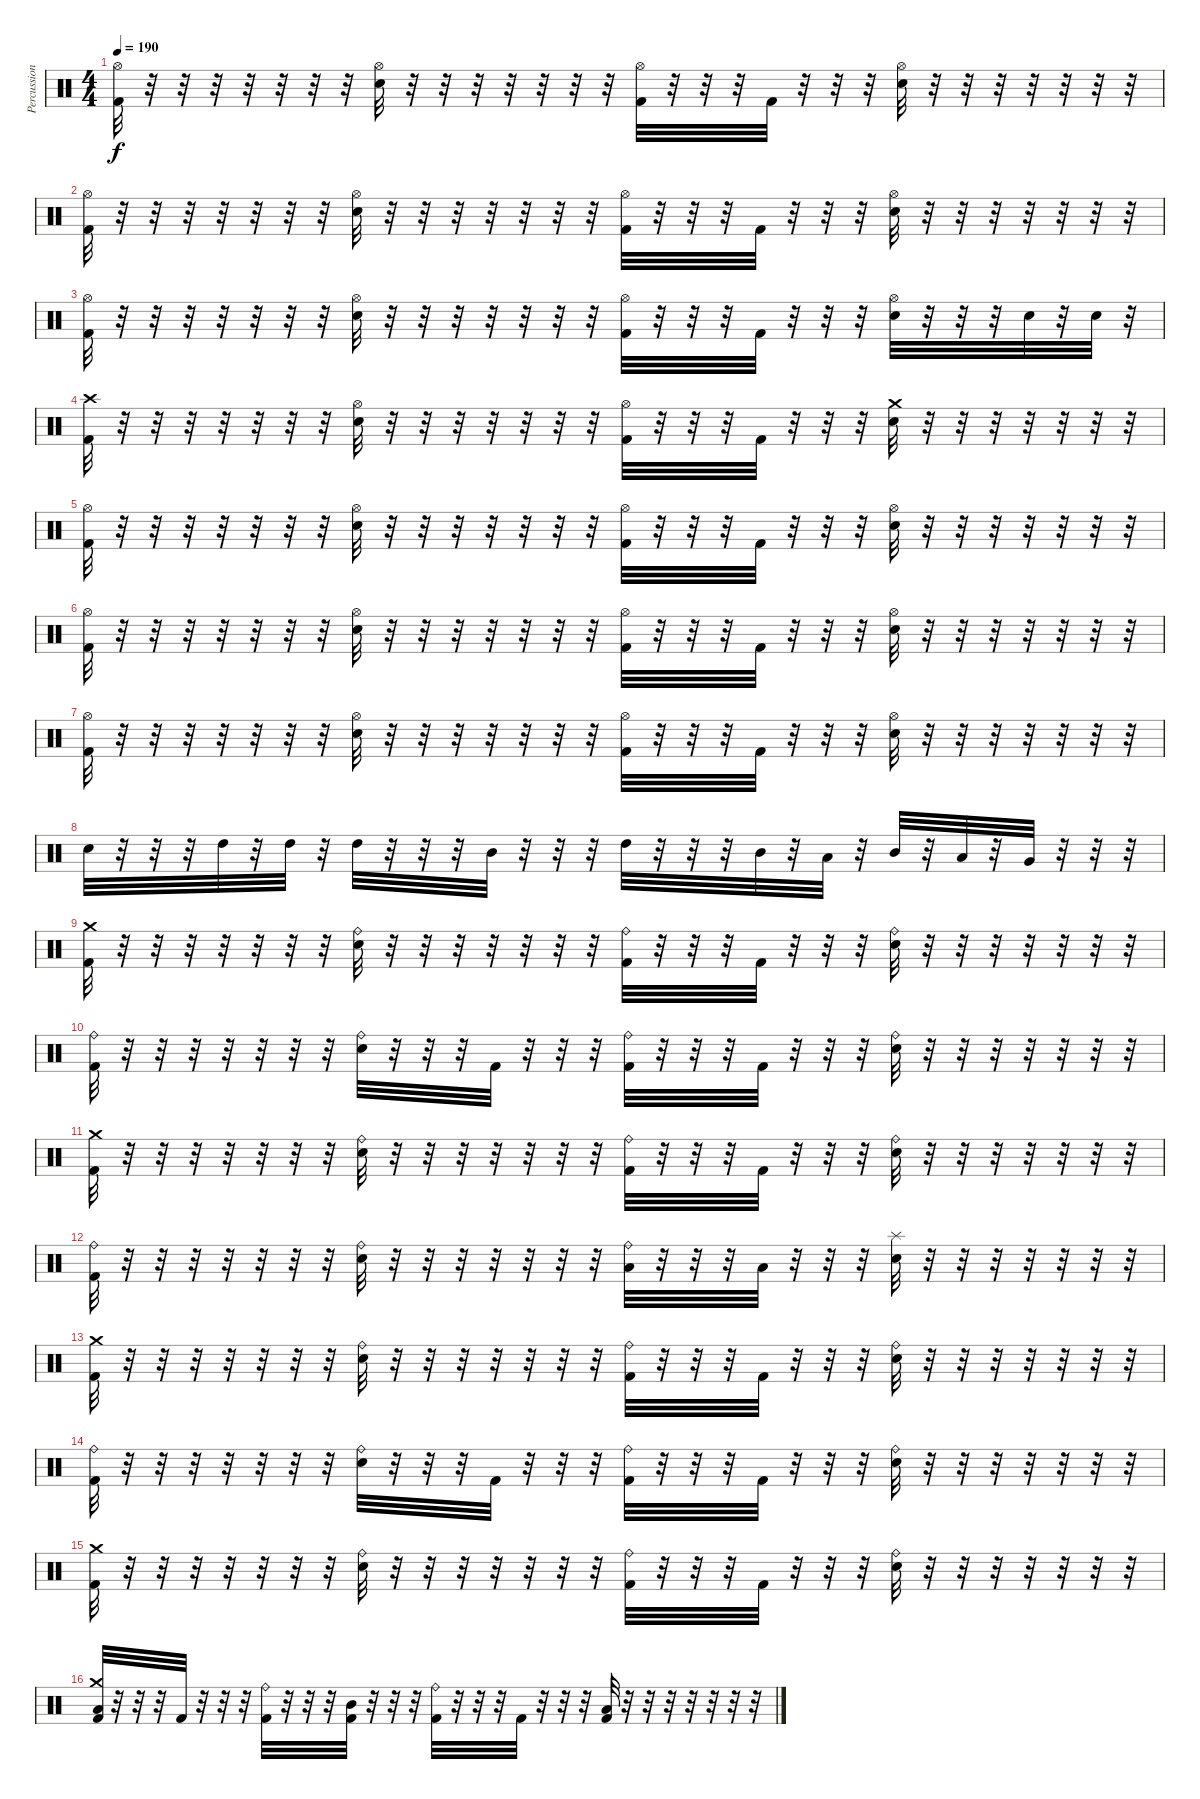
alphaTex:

\track ("Percussion" "Percussion") {instrument percussion}
\staff {score}
\articulation defaults
\ts (4 4)
\tempo 190
\clef neutral
\ks c
("Hi-Hat (open)" "Kick (hit) 2").32{dy f} r.32 r.32 r.32 r.32 r.32 r.32 r.32 ("Hi-Hat (open)" "Electric Snare (hit)").32 r.32 r.32 r.32 r.32 r.32 r.32 r.32 ("Hi-Hat (open)" "Kick (hit) 2").32 r.32 r.32 r.32 "Kick (hit) 2".32 r.32 r.32 r.32 ("Hi-Hat (open)" "Electric Snare (hit)").32 r.32 r.32 r.32 r.32 r.32 r.32 r.32 |
("Hi-Hat (open)" "Kick (hit) 2").32 r.32 r.32 r.32 r.32 r.32 r.32 r.32 ("Hi-Hat (open)" "Electric Snare (hit)").32 r.32 r.32 r.32 r.32 r.32 r.32 r.32 ("Hi-Hat (open)" "Kick (hit) 2").32 r.32 r.32 r.32 "Kick (hit) 2".32 r.32 r.32 r.32 ("Hi-Hat (open)" "Electric Snare (hit)").32 r.32 r.32 r.32 r.32 r.32 r.32 r.32 |
("Hi-Hat (open)" "Kick (hit) 2").32 r.32 r.32 r.32 r.32 r.32 r.32 r.32 ("Hi-Hat (open)" "Electric Snare (hit)").32 r.32 r.32 r.32 r.32 r.32 r.32 r.32 ("Hi-Hat (open)" "Kick (hit) 2").32 r.32 r.32 r.32 "Kick (hit) 2".32 r.32 r.32 r.32 ("Hi-Hat (open)" "Electric Snare (hit)").32 r.32 r.32 r.32 "Electric Snare (hit)".32 r.32 "Electric Snare (hit)".32 r.32 |
("Crash high (hit)" "Kick (hit) 2").32 r.32 r.32 r.32 r.32 r.32 r.32 r.32 ("Hi-Hat (open)" "Electric Snare (hit)").32 r.32 r.32 r.32 r.32 r.32 r.32 r.32 ("Hi-Hat (open)" "Kick (hit) 2").32 r.32 r.32 r.32 "Kick (hit) 2".32 r.32 r.32 r.32 ("Crash medium (hit)" "Electric Snare (hit)").32 r.32 r.32 r.32 r.32 r.32 r.32 r.32 |
("Hi-Hat (open)" "Kick (hit) 2").32 r.32 r.32 r.32 r.32 r.32 r.32 r.32 ("Hi-Hat (open)" "Electric Snare (hit)").32 r.32 r.32 r.32 r.32 r.32 r.32 r.32 ("Hi-Hat (open)" "Kick (hit) 2").32 r.32 r.32 r.32 "Kick (hit) 2".32 r.32 r.32 r.32 ("Hi-Hat (open)" "Electric Snare (hit)").32 r.32 r.32 r.32 r.32 r.32 r.32 r.32 |
("Hi-Hat (open)" "Kick (hit) 2").32 r.32 r.32 r.32 r.32 r.32 r.32 r.32 ("Hi-Hat (open)" "Electric Snare (hit)").32 r.32 r.32 r.32 r.32 r.32 r.32 r.32 ("Hi-Hat (open)" "Kick (hit) 2").32 r.32 r.32 r.32 "Kick (hit) 2".32 r.32 r.32 r.32 ("Hi-Hat (open)" "Electric Snare (hit)").32 r.32 r.32 r.32 r.32 r.32 r.32 r.32 |
("Hi-Hat (open)" "Kick (hit) 2").32 r.32 r.32 r.32 r.32 r.32 r.32 r.32 ("Hi-Hat (open)" "Electric Snare (hit)").32 r.32 r.32 r.32 r.32 r.32 r.32 r.32 ("Hi-Hat (open)" "Kick (hit) 2").32 r.32 r.32 r.32 "Kick (hit) 2".32 r.32 r.32 r.32 ("Hi-Hat (open)" "Electric Snare (hit)").32 r.32 r.32 r.32 r.32 r.32 r.32 r.32 |
"Electric Snare (hit)".32 r.32 r.32 r.32 "High Tom (hit)".32 r.32 "High Tom (hit)".32 r.32 "High Tom (hit)".32 r.32 r.32 r.32 "Mid Tom (hit)".32 r.32 r.32 r.32 "High Tom (hit)".32 r.32 r.32 r.32 "Mid Tom (hit)".32 r.32 "Low Tom (hit)".32 r.32 "Mid Tom (hit)".32 r.32 "Low Tom (hit)".32 r.32 "Very Low Tom (hit)".32 r.32 r.32 r.32 |
("Crash medium (hit)" "Kick (hit) 2").32 r.32 r.32 r.32 r.32 r.32 r.32 r.32 ("Ride (bell)" "Electric Snare (hit)").32 r.32 r.32 r.32 r.32 r.32 r.32 r.32 ("Ride (bell)" "Kick (hit) 2").32 r.32 r.32 r.32 "Kick (hit) 2".32 r.32 r.32 r.32 ("Ride (bell)" "Electric Snare (hit)").32 r.32 r.32 r.32 r.32 r.32 r.32 r.32 |
("Ride (bell)" "Kick (hit) 2").32 r.32 r.32 r.32 r.32 r.32 r.32 r.32 ("Ride (bell)" "Electric Snare (hit)").32 r.32 r.32 r.32 "Kick (hit) 2".32 r.32 r.32 r.32 ("Ride (bell)" "Kick (hit) 2").32 r.32 r.32 r.32 "Kick (hit) 2".32 r.32 r.32 r.32 ("Ride (bell)" "Electric Snare (hit)").32 r.32 r.32 r.32 r.32 r.32 r.32 r.32 |
("Crash medium (hit)" "Kick (hit) 2").32 r.32 r.32 r.32 r.32 r.32 r.32 r.32 ("Ride (bell)" "Electric Snare (hit)").32 r.32 r.32 r.32 r.32 r.32 r.32 r.32 ("Ride (bell)" "Kick (hit) 2").32 r.32 r.32 r.32 "Kick (hit) 2".32 r.32 r.32 r.32 ("Ride (bell)" "Electric Snare (hit)").32 r.32 r.32 r.32 r.32 r.32 r.32 r.32 |
("Ride (bell)" "Kick (hit) 2").32 r.32 r.32 r.32 r.32 r.32 r.32 r.32 ("Ride (bell)" "Electric Snare (hit)").32 r.32 r.32 r.32 r.32 r.32 r.32 r.32 ("Ride (bell)" "Low Tom (hit)").32 r.32 r.32 r.32 "Low Tom (hit)".32 r.32 r.32 r.32 ("Splash (hit)" "Electric Snare (hit)").32 r.32 r.32 r.32 r.32 r.32 r.32 r.32 |
("Crash medium (hit)" "Kick (hit) 2").32 r.32 r.32 r.32 r.32 r.32 r.32 r.32 ("Ride (bell)" "Electric Snare (hit)").32 r.32 r.32 r.32 r.32 r.32 r.32 r.32 ("Ride (bell)" "Kick (hit) 2").32 r.32 r.32 r.32 "Kick (hit) 2".32 r.32 r.32 r.32 ("Ride (bell)" "Electric Snare (hit)").32 r.32 r.32 r.32 r.32 r.32 r.32 r.32 |
("Ride (bell)" "Kick (hit) 2").32 r.32 r.32 r.32 r.32 r.32 r.32 r.32 ("Ride (bell)" "Electric Snare (hit)").32 r.32 r.32 r.32 "Kick (hit) 2".32 r.32 r.32 r.32 ("Ride (bell)" "Kick (hit) 2").32 r.32 r.32 r.32 "Kick (hit) 2".32 r.32 r.32 r.32 ("Ride (bell)" "Electric Snare (hit)").32 r.32 r.32 r.32 r.32 r.32 r.32 r.32 |
("Crash medium (hit)" "Kick (hit) 2").32 r.32 r.32 r.32 r.32 r.32 r.32 r.32 ("Ride (bell)" "Electric Snare (hit)").32 r.32 r.32 r.32 r.32 r.32 r.32 r.32 ("Ride (bell)" "Kick (hit) 2").32 r.32 r.32 r.32 "Kick (hit) 2".32 r.32 r.32 r.32 ("Ride (bell)" "Electric Snare (hit)").32 r.32 r.32 r.32 r.32 r.32 r.32 r.32 |
("Low Tom (hit)" "Crash medium (hit)" "Kick (hit) 2").32 r.32 r.32 r.32 "Kick (hit) 2".32 r.32 r.32 r.32 ("Ride (bell)" "Kick (hit) 2").32 r.32 r.32 r.32 ("Mid Tom (hit)" "Kick (hit) 2").32 r.32 r.32 r.32 ("Ride (bell)" "Kick (hit) 2").32 r.32 r.32 r.32 "Kick (hit) 2".32 r.32 r.32 r.32 ("Low Tom (hit)" "Kick (hit) 2").32 r.32 r.32 r.32 r.32 r.32 r.32 r.32
